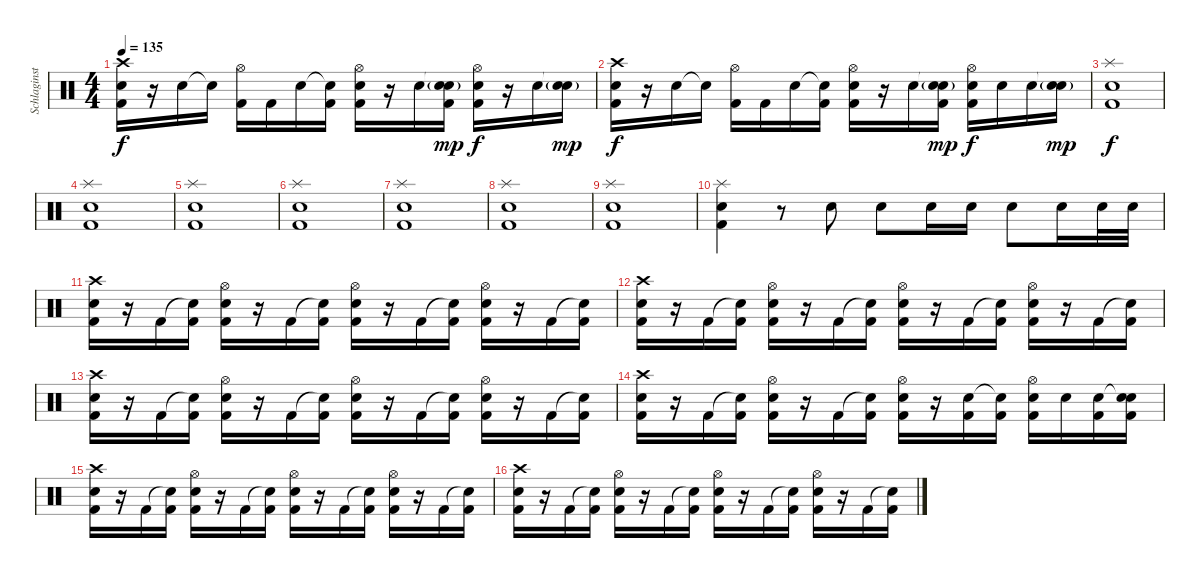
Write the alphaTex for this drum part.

\track ("Schlaginstrumente - Auswahl" "Schlaginst") {instrument percussion}
\staff {score}
\articulation defaults
\ts (4 4)
\tempo 135
\clef neutral
\ks c
("Crash high (hit)" "Snare (hit) 2" "Kick (hit) 2").16{dy f} r.16 "Snare (hit) 2".16 "Snare (hit)"{t}.16 ("Hi-Hat (open)" "Kick (hit) 2").16 "Kick (hit) 2".16 "Snare (hit) 2".16 ("Snare (hit)"{t} "Kick (hit) 2").16 ("Hi-Hat (open)" "Snare (hit) 2" "Kick (hit) 2").16 r.16 "Snare (hit) 2".16 ("Snare (hit)"{t} "Snare (hit) 2"{g} "Kick (hit) 2").16{dy mp} ("Hi-Hat (open)" "Snare (hit) 2" "Kick (hit) 2").16{dy f} r.16 "Snare (hit) 2".16 ("Snare (hit)"{t} "Snare (hit) 2"{g}).16{dy mp} |
("Crash high (hit)" "Snare (hit) 2" "Kick (hit) 2").16{dy f} r.16 "Snare (hit) 2".16 "Snare (hit)"{t}.16 ("Hi-Hat (open)" "Kick (hit) 2").16 "Kick (hit) 2".16 "Snare (hit) 2".16 ("Snare (hit)"{t} "Kick (hit) 2").16 ("Hi-Hat (open)" "Snare (hit) 2" "Kick (hit) 2").16 r.16 "Snare (hit) 2".16 ("Snare (hit)"{t} "Snare (hit) 2"{g} "Kick (hit) 2").16{dy mp} ("Hi-Hat (open)" "Snare (hit) 2" "Kick (hit) 2").16{dy f} "Snare (hit) 2".16 "Snare (hit) 2".16 ("Snare (hit)"{t} "Snare (hit) 2"{g}).16{dy mp} |
("Splash (hit)" "Snare (hit) 2" "Kick (hit) 2").1{dy f} |
("Splash (hit)" "Snare (hit) 2" "Kick (hit) 2").1 |
("Splash (hit)" "Snare (hit) 2" "Kick (hit) 2").1 |
("Splash (hit)" "Snare (hit) 2" "Kick (hit) 2").1 |
("Splash (hit)" "Snare (hit) 2" "Kick (hit) 2").1 |
("Splash (hit)" "Snare (hit) 2" "Kick (hit) 2").1 |
("Splash (hit)" "Snare (hit) 2" "Kick (hit) 2").1 |
("Splash (hit)" "Snare (hit) 2" "Kick (hit) 2").4 r.8 "Snare (hit) 2".8 "Snare (hit) 2".8 "Snare (hit) 2".16 "Snare (hit) 2".16 "Snare (hit) 2".8 "Snare (hit) 2".16 "Snare (hit) 2".32 "Snare (hit) 2".32 |
("Crash high (hit)" "Snare (hit) 2" "Kick (hit) 2").16 r.16 "Kick (hit) 2".16 ("Snare (hit)"{t} "Kick (hit) 2").16 ("Hi-Hat (open)" "Snare (hit) 2" "Kick (hit) 2").16 r.16 "Kick (hit) 2".16 ("Snare (hit)"{t} "Kick (hit) 2").16 ("Hi-Hat (open)" "Snare (hit) 2" "Kick (hit) 2").16 r.16 "Kick (hit) 2".16 ("Snare (hit)"{t} "Kick (hit) 2").16 ("Hi-Hat (open)" "Snare (hit) 2" "Kick (hit) 2").16 r.16 "Kick (hit) 2".16 ("Snare (hit)"{t} "Kick (hit) 2").16 |
("Crash high (hit)" "Snare (hit) 2" "Kick (hit) 2").16 r.16 "Kick (hit) 2".16 ("Snare (hit)"{t} "Kick (hit) 2").16 ("Hi-Hat (open)" "Snare (hit) 2" "Kick (hit) 2").16 r.16 "Kick (hit) 2".16 ("Snare (hit)"{t} "Kick (hit) 2").16 ("Hi-Hat (open)" "Snare (hit) 2" "Kick (hit) 2").16 r.16 "Kick (hit) 2".16 ("Snare (hit)"{t} "Kick (hit) 2").16 ("Hi-Hat (open)" "Snare (hit) 2" "Kick (hit) 2").16 r.16 "Kick (hit) 2".16 ("Snare (hit)"{t} "Kick (hit) 2").16 |
("Crash high (hit)" "Snare (hit) 2" "Kick (hit) 2").16 r.16 "Kick (hit) 2".16 ("Snare (hit)"{t} "Kick (hit) 2").16 ("Hi-Hat (open)" "Snare (hit) 2" "Kick (hit) 2").16 r.16 "Kick (hit) 2".16 ("Snare (hit)"{t} "Kick (hit) 2").16 ("Hi-Hat (open)" "Snare (hit) 2" "Kick (hit) 2").16 r.16 "Kick (hit) 2".16 ("Snare (hit)"{t} "Kick (hit) 2").16 ("Hi-Hat (open)" "Snare (hit) 2" "Kick (hit) 2").16 r.16 "Kick (hit) 2".16 ("Snare (hit)"{t} "Kick (hit) 2").16 |
("Crash high (hit)" "Snare (hit) 2" "Kick (hit) 2").16 r.16 "Kick (hit) 2".16 ("Snare (hit)"{t} "Kick (hit) 2").16 ("Hi-Hat (open)" "Snare (hit) 2" "Kick (hit) 2").16 r.16 "Kick (hit) 2".16 ("Snare (hit)"{t} "Kick (hit) 2").16 ("Hi-Hat (open)" "Snare (hit) 2" "Kick (hit) 2").16 r.16 ("Snare (hit) 2" "Kick (hit) 2").16 ("Snare (hit)"{t} "Kick (hit) 2").16 ("Hi-Hat (open)" "Snare (hit) 2" "Kick (hit) 2").16 "Snare (hit) 2".16 ("Snare (hit) 2" "Kick (hit) 2").16 ("Snare (hit)"{t} "Snare (hit) 2" "Kick (hit) 2").16 |
("Crash high (hit)" "Snare (hit) 2" "Kick (hit) 2").16 r.16 "Kick (hit) 2".16 ("Snare (hit)"{t} "Kick (hit) 2").16 ("Hi-Hat (open)" "Snare (hit) 2" "Kick (hit) 2").16 r.16 "Kick (hit) 2".16 ("Snare (hit)"{t} "Kick (hit) 2").16 ("Hi-Hat (open)" "Snare (hit) 2" "Kick (hit) 2").16 r.16 "Kick (hit) 2".16 ("Snare (hit)"{t} "Kick (hit) 2").16 ("Hi-Hat (open)" "Snare (hit) 2" "Kick (hit) 2").16 r.16 "Kick (hit) 2".16 ("Snare (hit)"{t} "Kick (hit) 2").16 |
("Crash high (hit)" "Snare (hit) 2" "Kick (hit) 2").16 r.16 "Kick (hit) 2".16 ("Snare (hit)"{t} "Kick (hit) 2").16 ("Hi-Hat (open)" "Snare (hit) 2" "Kick (hit) 2").16 r.16 "Kick (hit) 2".16 ("Snare (hit)"{t} "Kick (hit) 2").16 ("Hi-Hat (open)" "Snare (hit) 2" "Kick (hit) 2").16 r.16 "Kick (hit) 2".16 ("Snare (hit)"{t} "Kick (hit) 2").16 ("Hi-Hat (open)" "Snare (hit) 2" "Kick (hit) 2").16 r.16 "Kick (hit) 2".16 ("Snare (hit)"{t} "Kick (hit) 2").16
